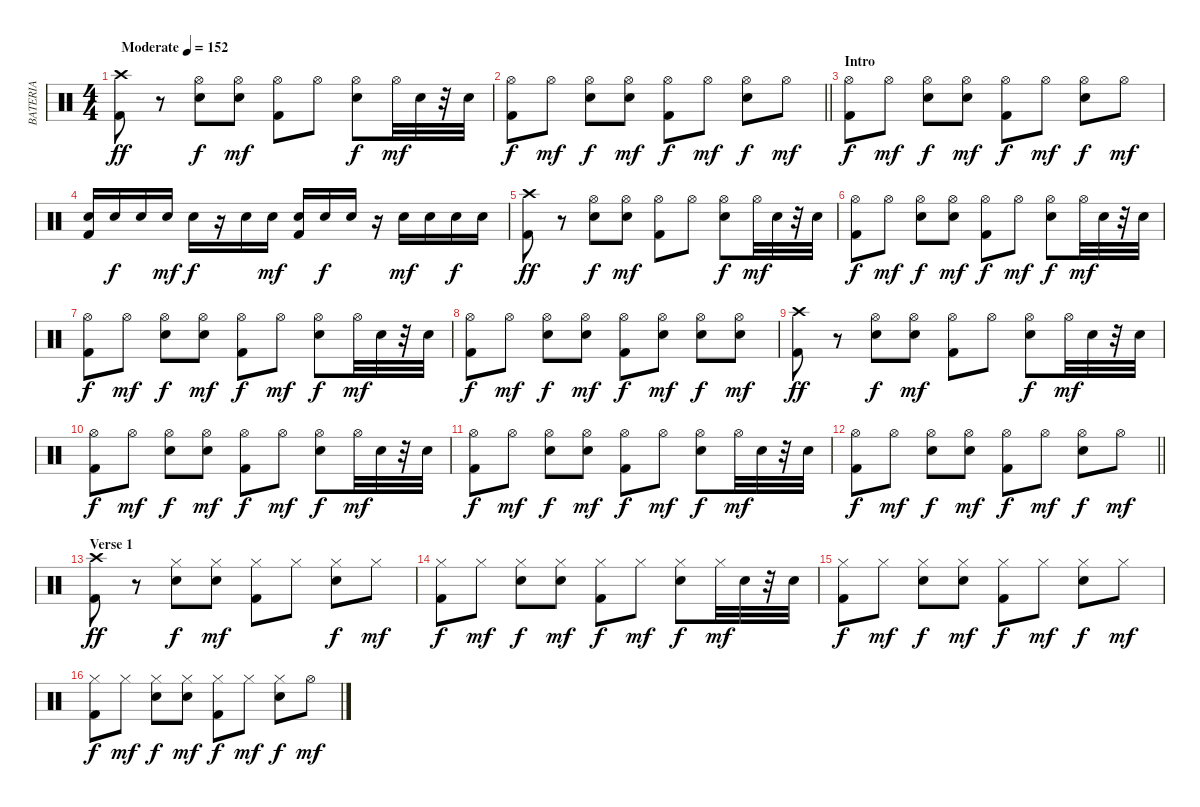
\track ("BATERIA" "BATERIA") {instrument percussion}
\staff {score}
\articulation defaults
\ts (4 4)
\tempo (152 "Moderate")
\clef neutral
\ks c
("Kick (hit) 2" "Crash high (hit)").8{dy ff} r.8 ("Snare (hit) 2" "Hi-Hat (open)").8{dy f} ("Snare (hit) 2" "Hi-Hat (open)").8{dy mf} ("Kick (hit) 2" "Hi-Hat (open)").8 "Hi-Hat (open)".8 ("Snare (hit) 2" "Hi-Hat (open)").8{dy f} "Hi-Hat (open)".32{dy mf} "Snare (hit) 2".32 r.32 "Snare (hit) 2".32 |
\barLineRight lightlight
("Kick (hit) 2" "Hi-Hat (open)").8{dy f} "Hi-Hat (open)".8{dy mf} ("Snare (hit) 2" "Hi-Hat (open)").8{dy f} ("Snare (hit) 2" "Hi-Hat (open)").8{dy mf} ("Kick (hit) 2" "Hi-Hat (open)").8{dy f} "Hi-Hat (open)".8{dy mf} ("Snare (hit) 2" "Hi-Hat (open)").8{dy f} "Hi-Hat (open)".8{dy mf} |
\section ("" "Intro")
("Hi-Hat (open)" "Kick (hit) 2").8{dy f} "Hi-Hat (open)".8{dy mf} ("Hi-Hat (open)" "Snare (hit) 2").8{dy f} ("Hi-Hat (open)" "Snare (hit) 2").8{dy mf} ("Hi-Hat (open)" "Kick (hit) 2").8{dy f} "Hi-Hat (open)".8{dy mf} ("Hi-Hat (open)" "Snare (hit) 2").8{dy f} "Hi-Hat (open)".8{dy mf} |
("Kick (hit) 2" "Snare (hit) 2").16 "Snare (hit) 2".16{dy f} "Snare (hit) 2".16 "Snare (hit) 2".16{dy mf} "Snare (hit) 2".16{dy f} r.16 "Snare (hit) 2".16 "Snare (hit) 2".16{dy mf} ("Snare (hit) 2" "Kick (hit) 2").16 "Snare (hit) 2".16{dy f} "Snare (hit) 2".16 r.16 "Snare (hit) 2".16{dy mf} "Snare (hit) 2".16 "Snare (hit) 2".16{dy f} "Snare (hit) 2".16 |
("Kick (hit) 2" "Crash high (hit)").8{dy ff} r.8 ("Snare (hit) 2" "Hi-Hat (open)").8{dy f} ("Snare (hit) 2" "Hi-Hat (open)").8{dy mf} ("Kick (hit) 2" "Hi-Hat (open)").8 "Hi-Hat (open)".8 ("Snare (hit) 2" "Hi-Hat (open)").8{dy f} "Hi-Hat (open)".32{dy mf} "Snare (hit) 2".32 r.32 "Snare (hit) 2".32 |
("Hi-Hat (open)" "Kick (hit) 2").8{dy f} "Hi-Hat (open)".8{dy mf} ("Hi-Hat (open)" "Snare (hit) 2").8{dy f} ("Hi-Hat (open)" "Snare (hit) 2").8{dy mf} ("Hi-Hat (open)" "Kick (hit) 2").8{dy f} "Hi-Hat (open)".8{dy mf} ("Hi-Hat (open)" "Snare (hit) 2").8{dy f} "Hi-Hat (open)".32{dy mf} "Snare (hit) 2".32 r.32 "Snare (hit) 2".32 |
("Hi-Hat (open)" "Kick (hit) 2").8{dy f} "Hi-Hat (open)".8{dy mf} ("Hi-Hat (open)" "Snare (hit) 2").8{dy f} ("Hi-Hat (open)" "Snare (hit) 2").8{dy mf} ("Hi-Hat (open)" "Kick (hit) 2").8{dy f} "Hi-Hat (open)".8{dy mf} ("Hi-Hat (open)" "Snare (hit) 2").8{dy f} "Hi-Hat (open)".32{dy mf} "Snare (hit) 2".32 r.32 "Snare (hit) 2".32 |
("Hi-Hat (open)" "Kick (hit) 2").8{dy f} "Hi-Hat (open)".8{dy mf} ("Snare (hit) 2" "Hi-Hat (open)").8{dy f} ("Snare (hit) 2" "Hi-Hat (open)").8{dy mf} ("Hi-Hat (open)" "Kick (hit) 2").8{dy f} ("Hi-Hat (open)" "Snare (hit) 2").8{dy mf} ("Hi-Hat (open)" "Snare (hit) 2").8{dy f} ("Hi-Hat (open)" "Snare (hit) 2").8{dy mf} |
("Kick (hit) 2" "Crash high (hit)").8{dy ff} r.8 ("Snare (hit) 2" "Hi-Hat (open)").8{dy f} ("Snare (hit) 2" "Hi-Hat (open)").8{dy mf} ("Kick (hit) 2" "Hi-Hat (open)").8 "Hi-Hat (open)".8 ("Snare (hit) 2" "Hi-Hat (open)").8{dy f} "Hi-Hat (open)".32{dy mf} "Snare (hit) 2".32 r.32 "Snare (hit) 2".32 |
("Hi-Hat (open)" "Kick (hit) 2").8{dy f} "Hi-Hat (open)".8{dy mf} ("Hi-Hat (open)" "Snare (hit) 2").8{dy f} ("Hi-Hat (open)" "Snare (hit) 2").8{dy mf} ("Hi-Hat (open)" "Kick (hit) 2").8{dy f} "Hi-Hat (open)".8{dy mf} ("Hi-Hat (open)" "Snare (hit) 2").8{dy f} "Hi-Hat (open)".32{dy mf} "Snare (hit) 2".32 r.32 "Snare (hit) 2".32 |
("Hi-Hat (open)" "Kick (hit) 2").8{dy f} "Hi-Hat (open)".8{dy mf} ("Hi-Hat (open)" "Snare (hit) 2").8{dy f} ("Hi-Hat (open)" "Snare (hit) 2").8{dy mf} ("Hi-Hat (open)" "Kick (hit) 2").8{dy f} "Hi-Hat (open)".8{dy mf} ("Hi-Hat (open)" "Snare (hit) 2").8{dy f} "Hi-Hat (open)".32{dy mf} "Snare (hit) 2".32 r.32 "Snare (hit) 2".32 |
\barLineRight lightlight
("Hi-Hat (open)" "Kick (hit) 2").8{dy f} "Hi-Hat (open)".8{dy mf} ("Snare (hit) 2" "Hi-Hat (open)").8{dy f} ("Snare (hit) 2" "Hi-Hat (open)").8{dy mf} ("Hi-Hat (open)" "Kick (hit) 2").8{dy f} "Hi-Hat (open)".8{dy mf} ("Hi-Hat (open)" "Snare (hit) 2").8{dy f} "Hi-Hat (open)".8{dy mf} |
\section ("" "Verse 1")
("Kick (hit) 2" "Crash high (hit)").8{dy ff} r.8 ("Snare (hit) 2" "Hi-Hat (closed)").8{dy f} ("Snare (hit) 2" "Hi-Hat (closed)").8{dy mf} ("Kick (hit) 2" "Hi-Hat (closed)").8 "Hi-Hat (closed)".8 ("Snare (hit) 2" "Hi-Hat (closed)").8{dy f} "Hi-Hat (closed)".8{dy mf} |
("Hi-Hat (closed)" "Kick (hit) 2").8{dy f} "Hi-Hat (closed)".8{dy mf} ("Hi-Hat (closed)" "Snare (hit) 2").8{dy f} ("Hi-Hat (closed)" "Snare (hit) 2").8{dy mf} ("Hi-Hat (closed)" "Kick (hit) 2").8{dy f} "Hi-Hat (closed)".8{dy mf} ("Hi-Hat (closed)" "Snare (hit) 2").8{dy f} "Hi-Hat (closed)".32{dy mf} "Snare (hit) 2".32 r.32 "Snare (hit) 2".32 |
("Hi-Hat (closed)" "Kick (hit) 2").8{dy f} "Hi-Hat (closed)".8{dy mf} ("Hi-Hat (closed)" "Snare (hit) 2").8{dy f} ("Hi-Hat (closed)" "Snare (hit) 2").8{dy mf} ("Hi-Hat (closed)" "Kick (hit) 2").8{dy f} "Hi-Hat (closed)".8{dy mf} ("Hi-Hat (closed)" "Snare (hit) 2").8{dy f} "Hi-Hat (closed)".8{dy mf} |
("Hi-Hat (closed)" "Kick (hit) 2").8{dy f} "Hi-Hat (closed)".8{dy mf} ("Snare (hit) 2" "Hi-Hat (closed)").8{dy f} ("Snare (hit) 2" "Hi-Hat (closed)").8{dy mf} ("Hi-Hat (closed)" "Kick (hit) 2").8{dy f} "Hi-Hat (closed)".8{dy mf} ("Hi-Hat (closed)" "Snare (hit) 2").8{dy f} "Hi-Hat (open)".8{dy mf}
